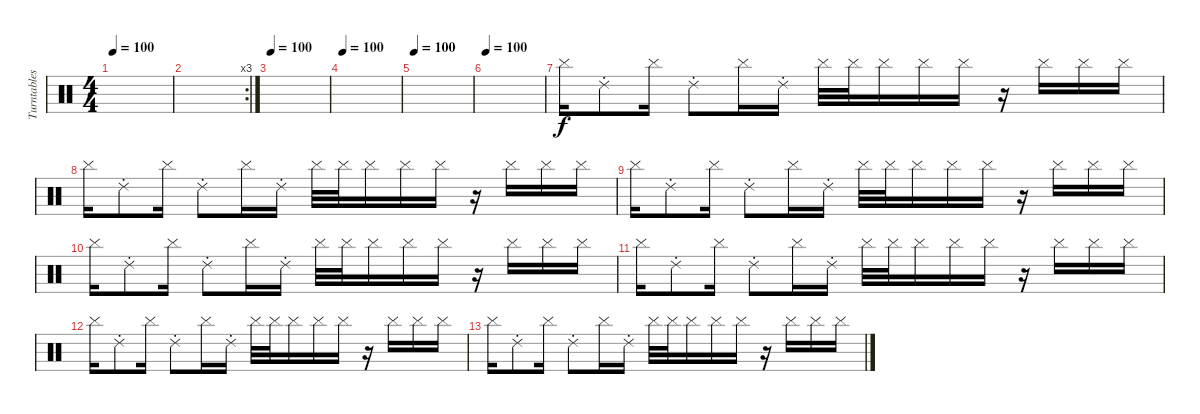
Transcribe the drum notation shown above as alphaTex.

\track ("Turntables" "Turntables") {instrument percussion}
\staff {score}
\articulation defaults
\ts (4 4)
\tempo 100
\clef neutral
\ks c
|
\rc 3
|
\tempo 100
|
\tempo 100
|
\tempo 100
|
\tempo 100
|
"Cymbal (hit)".16 "Ride (choke) 2".8 "Cymbal (hit)".16 "Ride (choke) 2".8 "Cymbal (hit)".16 "Ride (choke) 2".16 "Cymbal (hit)".32 "Cymbal (hit)".32 "Cymbal (hit)".16 "Cymbal (hit)".16 "Cymbal (hit)".16 r.16 "Cymbal (hit)".16 "Cymbal (hit)".16 "Cymbal (hit)".16 |
"Cymbal (hit)".16 "Ride (choke) 2".8 "Cymbal (hit)".16 "Ride (choke) 2".8 "Cymbal (hit)".16 "Ride (choke) 2".16 "Cymbal (hit)".32 "Cymbal (hit)".32 "Cymbal (hit)".16 "Cymbal (hit)".16 "Cymbal (hit)".16 r.16 "Cymbal (hit)".16 "Cymbal (hit)".16 "Cymbal (hit)".16 |
"Cymbal (hit)".16 "Ride (choke) 2".8 "Cymbal (hit)".16 "Ride (choke) 2".8 "Cymbal (hit)".16 "Ride (choke) 2".16 "Cymbal (hit)".32 "Cymbal (hit)".32 "Cymbal (hit)".16 "Cymbal (hit)".16 "Cymbal (hit)".16 r.16 "Cymbal (hit)".16 "Cymbal (hit)".16 "Cymbal (hit)".16 |
"Cymbal (hit)".16 "Ride (choke) 2".8 "Cymbal (hit)".16 "Ride (choke) 2".8 "Cymbal (hit)".16 "Ride (choke) 2".16 "Cymbal (hit)".32 "Cymbal (hit)".32 "Cymbal (hit)".16 "Cymbal (hit)".16 "Cymbal (hit)".16 r.16 "Cymbal (hit)".16 "Cymbal (hit)".16 "Cymbal (hit)".16 |
"Cymbal (hit)".16 "Ride (choke) 2".8 "Cymbal (hit)".16 "Ride (choke) 2".8 "Cymbal (hit)".16 "Ride (choke) 2".16 "Cymbal (hit)".32 "Cymbal (hit)".32 "Cymbal (hit)".16 "Cymbal (hit)".16 "Cymbal (hit)".16 r.16 "Cymbal (hit)".16 "Cymbal (hit)".16 "Cymbal (hit)".16 |
"Cymbal (hit)".16 "Ride (choke) 2".8 "Cymbal (hit)".16 "Ride (choke) 2".8 "Cymbal (hit)".16 "Ride (choke) 2".16 "Cymbal (hit)".32 "Cymbal (hit)".32 "Cymbal (hit)".16 "Cymbal (hit)".16 "Cymbal (hit)".16 r.16 "Cymbal (hit)".16 "Cymbal (hit)".16 "Cymbal (hit)".16 |
"Cymbal (hit)".16 "Ride (choke) 2".8 "Cymbal (hit)".16 "Ride (choke) 2".8 "Cymbal (hit)".16 "Ride (choke) 2".16 "Cymbal (hit)".32 "Cymbal (hit)".32 "Cymbal (hit)".16 "Cymbal (hit)".16 "Cymbal (hit)".16 r.16 "Cymbal (hit)".16 "Cymbal (hit)".16 "Cymbal (hit)".16
